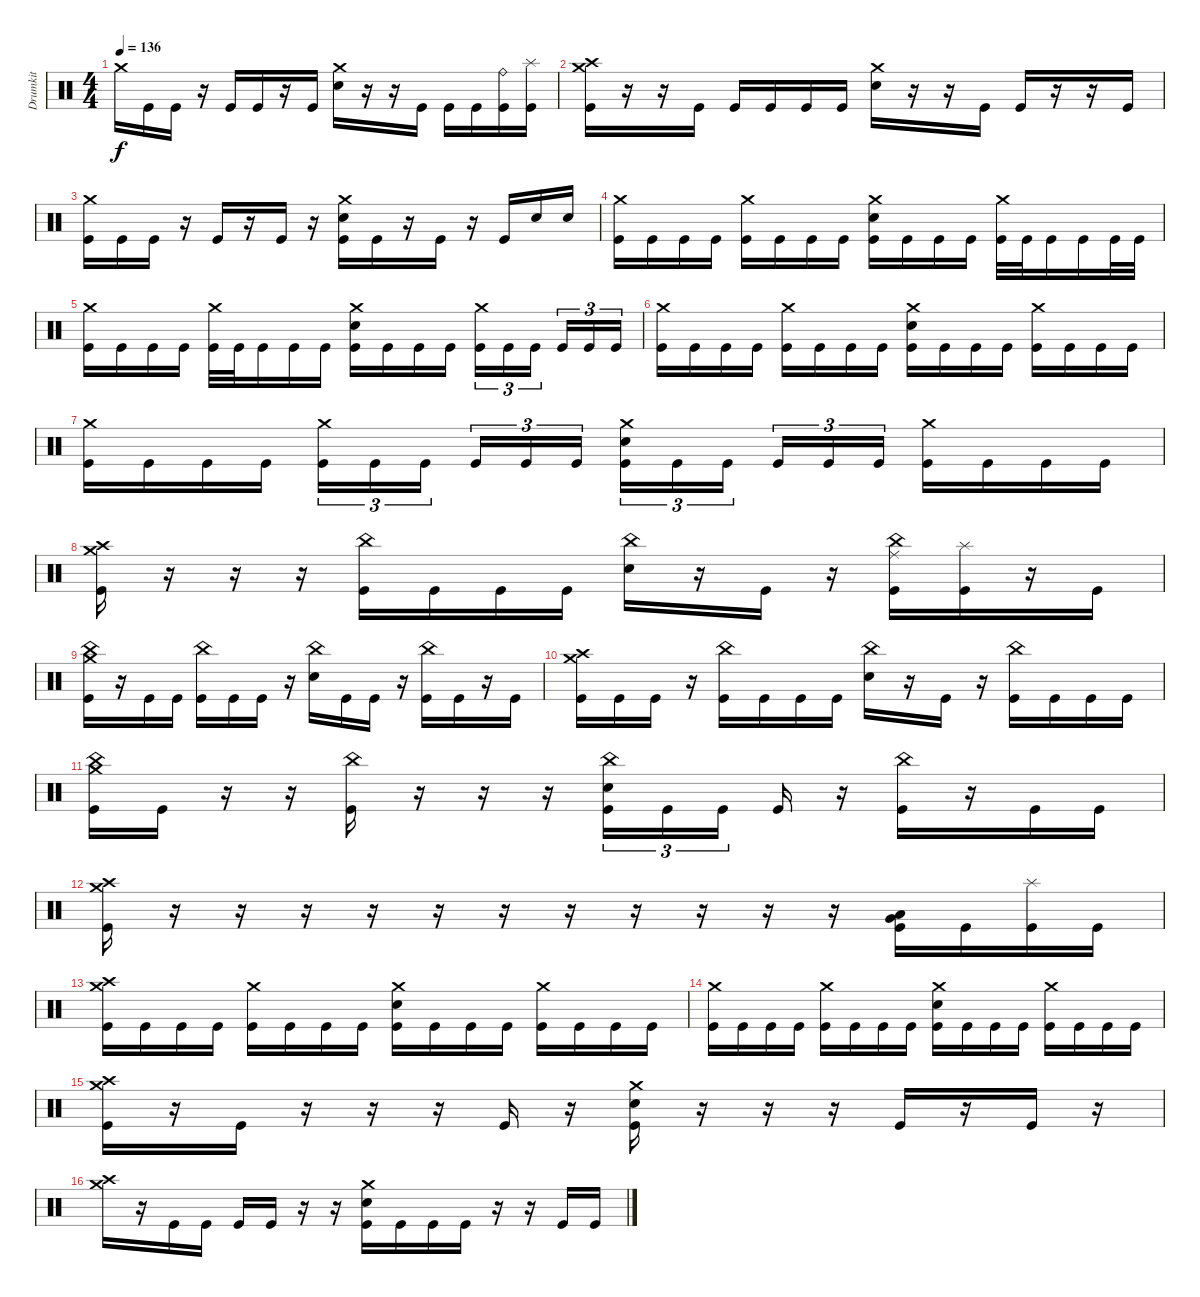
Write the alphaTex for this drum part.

\track ("Drumkit" "Drumkit") {instrument percussion}
\staff {score}
\articulation defaults
\ts (4 4)
\tempo 136
\clef neutral
\ks c "Crash medium (hit)".16{dy f} "Kick (hit)".16 "Kick (hit)".16
r.16 "Kick (hit)".16 "Kick (hit)".16 r.16 "Kick (hit)".16 ("Crash medium (hit)" "Snare (hit) 2").16 r.16 r.16 "Kick (hit)".16 "Kick (hit)".16 "Kick (hit)".16 ("Ride (bell)" "Kick (hit)").16 ("Splash (hit)" "Kick (hit)").16 |
("Crash medium (hit)" "Crash high (hit)" "Kick (hit)").16 r.16 r.16 "Kick (hit)".16 "Kick (hit)".16 "Kick (hit)".16 "Kick (hit)".16 "Kick (hit)".16 ("Crash medium (hit)" "Snare (hit) 2").16 r.16 r.16 "Kick (hit)".16 "Kick (hit)".16 r.16 r.16 "Kick (hit)".16 |
("Crash medium (hit)" "Kick (hit)").16 "Kick (hit)".16 "Kick (hit)".16 r.16 "Kick (hit)".16 r.16 "Kick (hit)".16 r.16 ("Crash medium (hit)" "Snare (hit) 2" "Kick (hit)").16 "Kick (hit)".16 r.16 "Kick (hit)".16 r.16 "Kick (hit)".16 "Snare (hit) 2".16 "Snare (hit) 2".16 |
("Crash medium (hit)" "Kick (hit)").16 "Kick (hit)".16 "Kick (hit)".16 "Kick (hit)".16 ("Crash medium (hit)" "Kick (hit)").16 "Kick (hit)".16 "Kick (hit)".16 "Kick (hit)".16 ("Crash medium (hit)" "Snare (hit) 2" "Kick (hit)").16 "Kick (hit)".16 "Kick (hit)".16 "Kick (hit)".16 ("Crash medium (hit)" "Kick (hit)").32 "Kick (hit)".32 "Kick (hit)".16 "Kick (hit)".16 "Kick (hit)".32 "Kick (hit)".32 |
("Crash medium (hit)" "Kick (hit)").16 "Kick (hit)".16 "Kick (hit)".16 "Kick (hit)".16 ("Crash medium (hit)" "Kick (hit)").32 "Kick (hit)".32 "Kick (hit)".16 "Kick (hit)".16 "Kick (hit)".16 ("Crash medium (hit)" "Snare (hit) 2" "Kick (hit)").16 "Kick (hit)".16 "Kick (hit)".16 "Kick (hit)".16 ("Crash medium (hit)" "Kick (hit)").16{tu (3 2)} "Kick (hit)".16{tu (3 2)} "Kick (hit)".16{tu (3 2)} "Kick (hit)".16{tu (3 2)} "Kick (hit)".16{tu (3 2)} "Kick (hit)".16{tu (3 2)} |
("Crash medium (hit)" "Kick (hit)").16 "Kick (hit)".16 "Kick (hit)".16 "Kick (hit)".16 ("Crash medium (hit)" "Kick (hit)").16 "Kick (hit)".16 "Kick (hit)".16 "Kick (hit)".16 ("Crash medium (hit)" "Snare (hit) 2" "Kick (hit)").16 "Kick (hit)".16 "Kick (hit)".16 "Kick (hit)".16 ("Crash medium (hit)" "Kick (hit)").16 "Kick (hit)".16 "Kick (hit)".16 "Kick (hit)".16 |
("Crash medium (hit)" "Kick (hit)").16 "Kick (hit)".16 "Kick (hit)".16 "Kick (hit)".16 ("Crash medium (hit)" "Kick (hit)").16{tu (3 2)} "Kick (hit)".16{tu (3 2)} "Kick (hit)".16{tu (3 2)} "Kick (hit)".16{tu (3 2)} "Kick (hit)".16{tu (3 2)} "Kick (hit)".16{tu (3 2)} ("Crash medium (hit)" "Snare (hit) 2" "Kick (hit)").16{tu (3 2)} "Kick (hit)".16{tu (3 2)} "Kick (hit)".16{tu (3 2)} "Kick (hit)".16{tu (3 2)} "Kick (hit)".16{tu (3 2)} "Kick (hit)".16{tu (3 2)} ("Crash medium (hit)" "Kick (hit)").16 "Kick (hit)".16 "Kick (hit)".16 "Kick (hit)".16 |
("Crash medium (hit)" "Crash high (hit)" "Kick (hit)").16 r.16 r.16 r.16 ("China (hit)" "Kick (hit)").16 "Kick (hit)".16 "Kick (hit)".16 "Kick (hit)".16 ("China (hit)" "Snare (hit) 2").16 r.16 "Kick (hit)".16 r.16 ("China (hit)" "Ride (middle)" "Kick (hit)").16 ("Splash (hit)" "Kick (hit)").16 r.16 "Kick (hit)".16 |
("Crash medium (hit)" "China (hit)" "Kick (hit)").16 r.16 "Kick (hit)".16 "Kick (hit)".16 ("China (hit)" "Kick (hit)").16 "Kick (hit)".16 "Kick (hit)".16 r.16 ("China (hit)" "Snare (hit) 2").16 "Kick (hit)".16 "Kick (hit)".16 r.16 ("China (hit)" "Kick (hit)").16 "Kick (hit)".16 r.16 "Kick (hit)".16 |
("Crash medium (hit)" "Crash high (hit)" "Kick (hit)").16 "Kick (hit)".16 "Kick (hit)".16 r.16 ("China (hit)" "Kick (hit)").16 "Kick (hit)".16 "Kick (hit)".16 "Kick (hit)".16 ("China (hit)" "Snare (hit) 2").16 r.16 "Kick (hit)".16 r.16 ("China (hit)" "Kick (hit)").16 "Kick (hit)".16 "Kick (hit)".16 "Kick (hit)".16 |
("Crash medium (hit)" "China (hit)" "Kick (hit)").16 "Kick (hit)".16 r.16 r.16 ("China (hit)" "Kick (hit)").16 r.16 r.16 r.16 ("China (hit)" "Snare (hit) 2" "Kick (hit)").16{tu (3 2)} "Kick (hit)".16{tu (3 2)} "Kick (hit)".16{tu (3 2)} "Kick (hit)".16 r.16 ("China (hit)" "Kick (hit)").16 r.16 "Kick (hit)".16 "Kick (hit)".16 |
("Crash medium (hit)" "Crash high (hit)" "Kick (hit)").16 r.16 r.16 r.16 r.16 r.16 r.16 r.16 r.16 r.16 r.16 r.16 ("Very Low Tom (hit)" "Low Floor Tom (hit)" "Kick (hit)").16 "Kick (hit)".16 ("Splash (hit)" "Kick (hit)").16 "Kick (hit)".16 |
("Crash medium (hit)" "Crash high (hit)" "Kick (hit)").16 "Kick (hit)".16 "Kick (hit)".16 "Kick (hit)".16 ("Crash medium (hit)" "Kick (hit)").16 "Kick (hit)".16 "Kick (hit)".16 "Kick (hit)".16 ("Crash medium (hit)" "Snare (hit) 2" "Kick (hit)").16 "Kick (hit)".16 "Kick (hit)".16 "Kick (hit)".16 ("Crash medium (hit)" "Kick (hit)").16 "Kick (hit)".16 "Kick (hit)".16 "Kick (hit)".16 |
("Crash medium (hit)" "Kick (hit)").16 "Kick (hit)".16 "Kick (hit)".16 "Kick (hit)".16 ("Crash medium (hit)" "Kick (hit)").16 "Kick (hit)".16 "Kick (hit)".16 "Kick (hit)".16 ("Crash medium (hit)" "Snare (hit) 2" "Kick (hit)").16 "Kick (hit)".16 "Kick (hit)".16 "Kick (hit)".16 ("Crash medium (hit)" "Kick (hit)").16 "Kick (hit)".16 "Kick (hit)".16 "Kick (hit)".16 |
("Crash medium (hit)" "Crash high (hit)" "Kick (hit)").16 r.16 "Kick (hit)".16 r.16 r.16 r.16 "Kick (hit)".16 r.16 ("Crash medium (hit)" "Snare (hit) 2" "Kick (hit)").16 r.16 r.16 r.16 "Kick (hit)".16 r.16 "Kick (hit)".16 r.16 |
("Crash medium (hit)" "Crash high (hit)").16 r.16 "Kick (hit)".16 "Kick (hit)".16 "Kick (hit)".16 "Kick (hit)".16 r.16 r.16 ("Crash medium (hit)" "Snare (hit) 2" "Kick (hit)").16 "Kick (hit)".16 "Kick (hit)".16 "Kick (hit)".16 r.16 r.16 "Kick (hit)".16 "Kick (hit)".16
